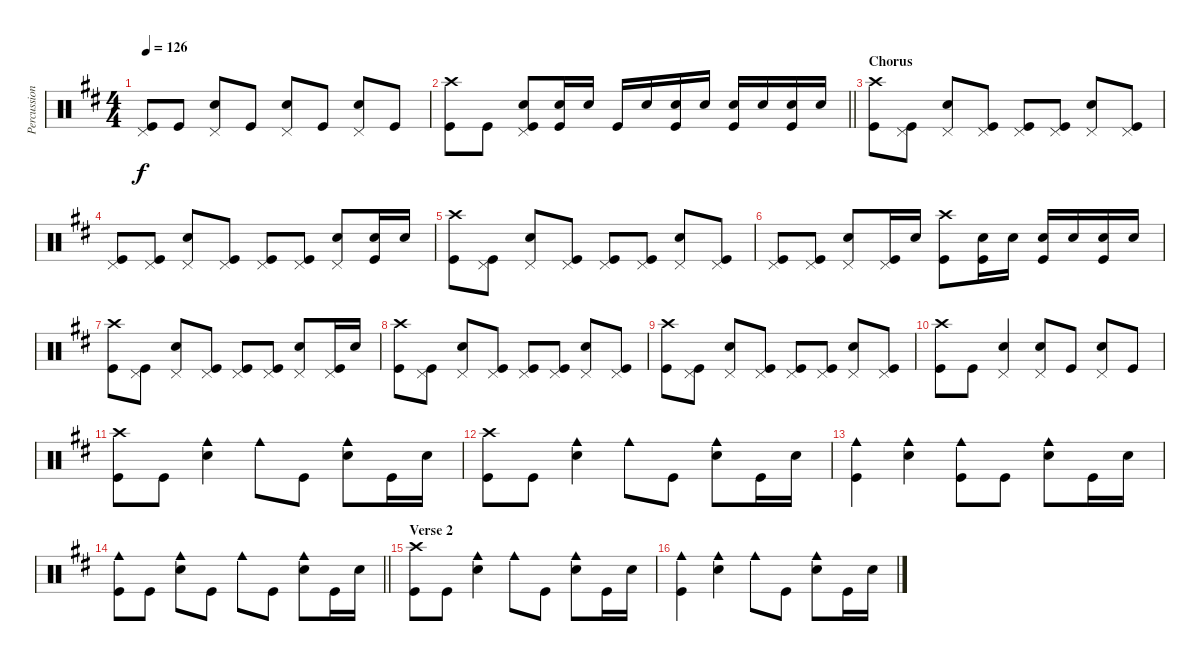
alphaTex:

\track ("Percussion" "Percussion") {instrument percussion}
\staff {score}
\articulation defaults
\ts (4 4)
\tempo 126
\clef neutral
\ks d
("Pedal Hi-Hat (hit)" "Kick (hit)").8{dy f} "Kick (hit)".8 ("Pedal Hi-Hat (hit)" "Snare (hit) 2").8 "Kick (hit)".8 ("Pedal Hi-Hat (hit)" "Snare (hit) 2").8 "Kick (hit)".8 ("Pedal Hi-Hat (hit)" "Snare (hit) 2").8 "Kick (hit)".8 |
\barLineRight lightlight
("Crash high (hit)" "Kick (hit)").8 "Kick (hit)".8 ("Pedal Hi-Hat (hit)" "Snare (hit) 2" "Kick (hit)").8 ("Snare (hit) 2" "Kick (hit)").16 "Snare (hit) 2".16 "Kick (hit)".16 "Snare (hit) 2".16 ("Snare (hit) 2" "Kick (hit)").16 "Snare (hit) 2".16 ("Snare (hit) 2" "Kick (hit)").16 "Snare (hit) 2".16 ("Snare (hit) 2" "Kick (hit)").16 "Snare (hit) 2".16 |
\section ("" "Chorus")
("Crash high (hit)" "Kick (hit)").8 ("Pedal Hi-Hat (hit)" "Kick (hit)").8 ("Pedal Hi-Hat (hit)" "Snare (hit) 2").8 ("Pedal Hi-Hat (hit)" "Kick (hit)").8 ("Pedal Hi-Hat (hit)" "Kick (hit)").8 ("Pedal Hi-Hat (hit)" "Kick (hit)").8 ("Pedal Hi-Hat (hit)" "Snare (hit) 2").8 ("Pedal Hi-Hat (hit)" "Kick (hit)").8 |
("Pedal Hi-Hat (hit)" "Kick (hit)").8 ("Pedal Hi-Hat (hit)" "Kick (hit)").8 ("Pedal Hi-Hat (hit)" "Snare (hit) 2").8 ("Pedal Hi-Hat (hit)" "Kick (hit)").8 ("Pedal Hi-Hat (hit)" "Kick (hit)").8 ("Pedal Hi-Hat (hit)" "Kick (hit)").8 ("Pedal Hi-Hat (hit)" "Snare (hit) 2").8 ("Snare (hit) 2" "Kick (hit)").16 "Snare (hit) 2".16 |
("Crash high (hit)" "Kick (hit)").8 ("Pedal Hi-Hat (hit)" "Kick (hit)").8 ("Pedal Hi-Hat (hit)" "Snare (hit) 2").8 ("Pedal Hi-Hat (hit)" "Kick (hit)").8 ("Pedal Hi-Hat (hit)" "Kick (hit)").8 ("Pedal Hi-Hat (hit)" "Kick (hit)").8 ("Pedal Hi-Hat (hit)" "Snare (hit) 2").8 ("Pedal Hi-Hat (hit)" "Kick (hit)").8 |
("Pedal Hi-Hat (hit)" "Kick (hit)").8 ("Pedal Hi-Hat (hit)" "Kick (hit)").8 ("Pedal Hi-Hat (hit)" "Snare (hit) 2").8 ("Pedal Hi-Hat (hit)" "Kick (hit)").16 "Snare (hit) 2".16 ("Crash high (hit)" "Kick (hit)").8 ("Snare (hit) 2" "Kick (hit)").16 "Snare (hit) 2".16 ("Snare (hit) 2" "Kick (hit)").16 "Snare (hit) 2".16 ("Snare (hit) 2" "Kick (hit)").16 "Snare (hit) 2".16 |
("Crash high (hit)" "Kick (hit)").8 ("Pedal Hi-Hat (hit)" "Kick (hit)").8 ("Pedal Hi-Hat (hit)" "Snare (hit) 2").8 ("Pedal Hi-Hat (hit)" "Kick (hit)").8 ("Pedal Hi-Hat (hit)" "Kick (hit)").8 ("Pedal Hi-Hat (hit)" "Kick (hit)").8 ("Pedal Hi-Hat (hit)" "Snare (hit) 2").8 ("Pedal Hi-Hat (hit)" "Kick (hit)").16 "Snare (hit) 2".16 |
("Crash high (hit)" "Kick (hit)").8 ("Pedal Hi-Hat (hit)" "Kick (hit)").8 ("Pedal Hi-Hat (hit)" "Snare (hit) 2").8 ("Pedal Hi-Hat (hit)" "Kick (hit)").8 ("Pedal Hi-Hat (hit)" "Kick (hit)").8 ("Pedal Hi-Hat (hit)" "Kick (hit)").8 ("Pedal Hi-Hat (hit)" "Snare (hit) 2").8 ("Pedal Hi-Hat (hit)" "Kick (hit)").8 |
("Crash high (hit)" "Kick (hit)").8 ("Pedal Hi-Hat (hit)" "Kick (hit)").8 ("Pedal Hi-Hat (hit)" "Snare (hit) 2").8 ("Pedal Hi-Hat (hit)" "Kick (hit)").8 ("Pedal Hi-Hat (hit)" "Kick (hit)").8 ("Pedal Hi-Hat (hit)" "Kick (hit)").8 ("Pedal Hi-Hat (hit)" "Snare (hit) 2").8 ("Pedal Hi-Hat (hit)" "Kick (hit)").8 |
("Crash high (hit)" "Kick (hit)").8 "Kick (hit)".8 ("Pedal Hi-Hat (hit)" "Snare (hit) 2").4 ("Pedal Hi-Hat (hit)" "Snare (hit) 2").8 "Kick (hit)".8 ("Pedal Hi-Hat (hit)" "Snare (hit) 2").8 "Kick (hit)".8 |
("Crash high (hit)" "Kick (hit)").8 "Kick (hit)".8 ("Cowbell medium (hit)" "Snare (hit) 2").4 "Cowbell medium (hit)".8 "Kick (hit)".8 ("Cowbell medium (hit)" "Snare (hit) 2").8 "Kick (hit)".16 "Snare (hit) 2".16 |
("Crash high (hit)" "Kick (hit)").8 "Kick (hit)".8 ("Cowbell medium (hit)" "Snare (hit) 2").4 "Cowbell medium (hit)".8 "Kick (hit)".8 ("Cowbell medium (hit)" "Snare (hit) 2").8 "Kick (hit)".16 "Snare (hit) 2".16 |
("Cowbell medium (hit)" "Kick (hit)").4 ("Cowbell medium (hit)" "Snare (hit) 2").4 ("Cowbell medium (hit)" "Kick (hit)").8 "Kick (hit)".8 ("Cowbell medium (hit)" "Snare (hit) 2").8 "Kick (hit)".16 "Snare (hit) 2".16 |
\barLineRight lightlight
("Cowbell medium (hit)" "Kick (hit)").8 "Kick (hit)".8 ("Cowbell medium (hit)" "Snare (hit) 2").8 "Kick (hit)".8 "Cowbell medium (hit)".8 "Kick (hit)".8 ("Cowbell medium (hit)" "Snare (hit) 2").8 "Kick (hit)".16 "Snare (hit) 2".16 |
\section ("" "Verse 2")
("Crash high (hit)" "Kick (hit)").8 "Kick (hit)".8 ("Cowbell medium (hit)" "Snare (hit) 2").4 "Cowbell medium (hit)".8 "Kick (hit)".8 ("Cowbell medium (hit)" "Snare (hit) 2").8 "Kick (hit)".16 "Snare (hit) 2".16 |
("Cowbell medium (hit)" "Kick (hit)").4 ("Cowbell medium (hit)" "Snare (hit) 2").4 "Cowbell medium (hit)".8 "Kick (hit)".8 ("Cowbell medium (hit)" "Snare (hit) 2").8 "Kick (hit)".16 "Snare (hit) 2".16
